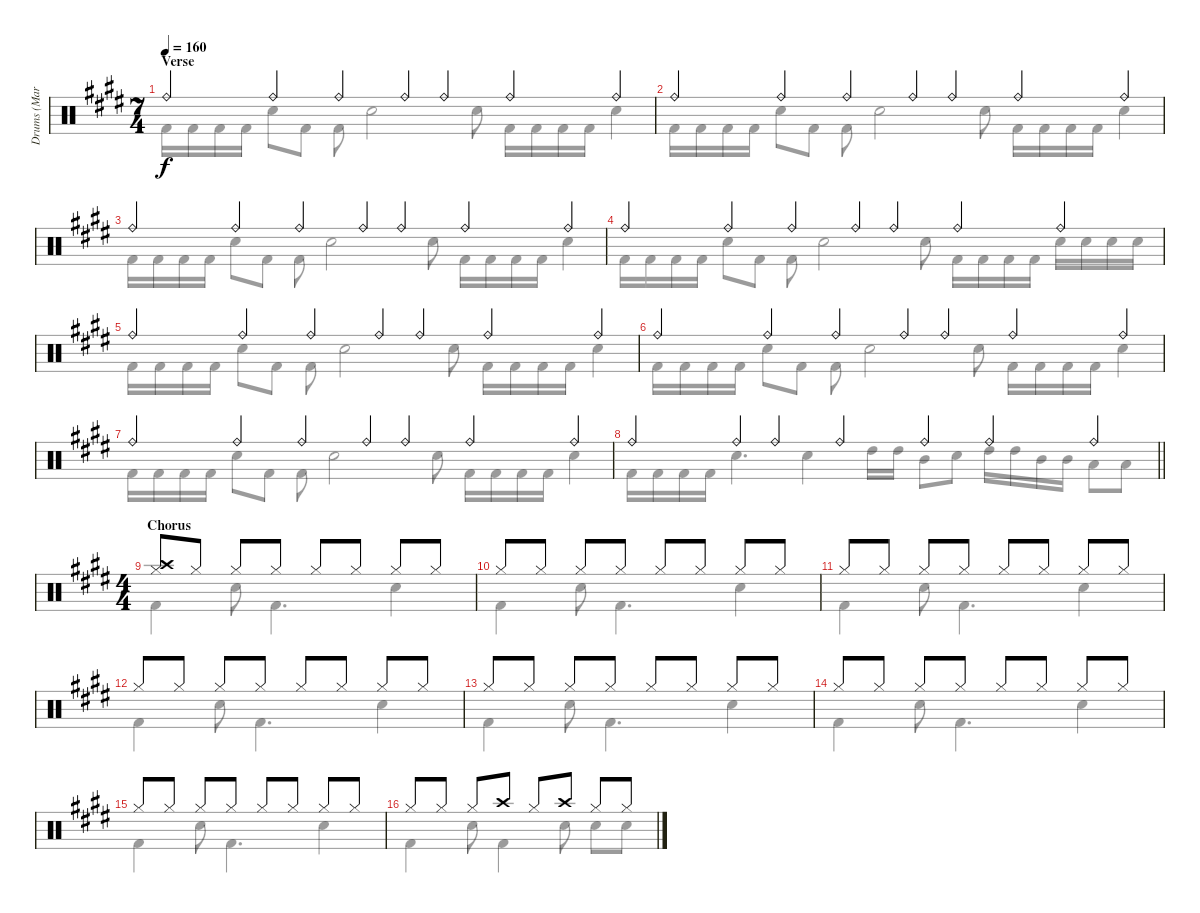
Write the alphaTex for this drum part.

\track ("Drums (Mark Zonder)" "Drums (Mar") {instrument percussion}
\staff {score}
\articulation defaults
\voice
\ts (7 4)
\section ("" "Verse")
\tempo 160
\clef neutral
\ks c#minor "Ride (bell)".4{dy f} "Ride (bell)".4 "Ride (bell)".4 "Ride (bell)".4 "Ride (bell)".4 "Ride (bell)".4 "Ride (bell)".4
|
"Ride (bell)".4 "Ride (bell)".4 "Ride (bell)".4 "Ride (bell)".4 "Ride (bell)".4 "Ride (bell)".4 "Ride (bell)".4 |
"Ride (bell)".4 "Ride (bell)".4 "Ride (bell)".4 "Ride (bell)".4 "Ride (bell)".4 "Ride (bell)".4 "Ride (bell)".4 |
"Ride (bell)".4 "Ride (bell)".4 "Ride (bell)".4 "Ride (bell)".4 "Ride (bell)".4 "Ride (bell)".4 "Ride (bell)".4 |
"Ride (bell)".4 "Ride (bell)".4 "Ride (bell)".4 "Ride (bell)".4 "Ride (bell)".4 "Ride (bell)".4 "Ride (bell)".4 |
"Ride (bell)".4 "Ride (bell)".4 "Ride (bell)".4 "Ride (bell)".4 "Ride (bell)".4 "Ride (bell)".4 "Ride (bell)".4 |
"Ride (bell)".4 "Ride (bell)".4 "Ride (bell)".4 "Ride (bell)".4 "Ride (bell)".4 "Ride (bell)".4 "Ride (bell)".4 |
\barLineRight lightlight "Ride (bell)".4 "Ride (bell)".4 "Ride (bell)".4 "Ride (bell)".4 "Ride (bell)".4 "Ride (bell)".4 "Ride (bell)".4
|
\ts (4 4)
\section ("" "Chorus")
("Hi-Hat (closed)" "Crash high (hit)").8 "Hi-Hat (closed)".8 "Hi-Hat (closed)".8 "Hi-Hat (closed)".8 "Hi-Hat (closed)".8 "Hi-Hat (closed)".8 "Hi-Hat (closed)".8 "Hi-Hat (closed)".8 |
"Hi-Hat (closed)".8 "Hi-Hat (closed)".8 "Hi-Hat (closed)".8 "Hi-Hat (closed)".8 "Hi-Hat (closed)".8 "Hi-Hat (closed)".8 "Hi-Hat (closed)".8 "Hi-Hat (closed)".8 |
"Hi-Hat (closed)".8 "Hi-Hat (closed)".8 "Hi-Hat (closed)".8 "Hi-Hat (closed)".8 "Hi-Hat (closed)".8 "Hi-Hat (closed)".8 "Hi-Hat (closed)".8 "Hi-Hat (closed)".8 |
"Hi-Hat (closed)".8 "Hi-Hat (closed)".8 "Hi-Hat (closed)".8 "Hi-Hat (closed)".8 "Hi-Hat (closed)".8 "Hi-Hat (closed)".8 "Hi-Hat (closed)".8 "Hi-Hat (closed)".8 |
"Hi-Hat (closed)".8 "Hi-Hat (closed)".8 "Hi-Hat (closed)".8 "Hi-Hat (closed)".8 "Hi-Hat (closed)".8 "Hi-Hat (closed)".8 "Hi-Hat (closed)".8 "Hi-Hat (closed)".8 |
"Hi-Hat (closed)".8 "Hi-Hat (closed)".8 "Hi-Hat (closed)".8 "Hi-Hat (closed)".8 "Hi-Hat (closed)".8 "Hi-Hat (closed)".8 "Hi-Hat (closed)".8 "Hi-Hat (closed)".8 |
"Hi-Hat (closed)".8 "Hi-Hat (closed)".8 "Hi-Hat (closed)".8 "Hi-Hat (closed)".8 "Hi-Hat (closed)".8 "Hi-Hat (closed)".8 "Hi-Hat (closed)".8 "Hi-Hat (closed)".8 |
"Hi-Hat (closed)".8 "Hi-Hat (closed)".8 "Hi-Hat (closed)".8 "Crash high (hit)".8 "Hi-Hat (closed)".8 "Crash high (hit)".8 "Hi-Hat (closed)".8 "Hi-Hat (closed)".8
\voice
\clef neutral
\ottava regular
\simile none
\ks c#minor "Kick (hit) 2".16{dy f} "Kick (hit) 2".16 "Kick (hit) 2".16 "Kick (hit) 2".16 "Electric Snare (hit)".8 "Kick (hit) 2".8 "Kick (hit) 2".8 "Electric Snare (hit)".2 "Electric Snare (hit)".8 "Kick (hit) 2".16 "Kick (hit) 2".16 "Kick (hit) 2".16 "Kick (hit) 2".16 "Electric Snare (hit)".4
|
"Kick (hit) 2".16 "Kick (hit) 2".16 "Kick (hit) 2".16 "Kick (hit) 2".16 "Electric Snare (hit)".8 "Kick (hit) 2".8 "Kick (hit) 2".8 "Electric Snare (hit)".2 "Electric Snare (hit)".8 "Kick (hit) 2".16 "Kick (hit) 2".16 "Kick (hit) 2".16 "Kick (hit) 2".16 "Electric Snare (hit)".4 |
"Kick (hit) 2".16 "Kick (hit) 2".16 "Kick (hit) 2".16 "Kick (hit) 2".16 "Electric Snare (hit)".8 "Kick (hit) 2".8 "Kick (hit) 2".8 "Electric Snare (hit)".2 "Electric Snare (hit)".8 "Kick (hit) 2".16 "Kick (hit) 2".16 "Kick (hit) 2".16 "Kick (hit) 2".16 "Electric Snare (hit)".4 |
"Kick (hit) 2".16 "Kick (hit) 2".16 "Kick (hit) 2".16 "Kick (hit) 2".16 "Electric Snare (hit)".8 "Kick (hit) 2".8 "Kick (hit) 2".8 "Electric Snare (hit)".2 "Electric Snare (hit)".8 "Kick (hit) 2".16 "Kick (hit) 2".16 "Kick (hit) 2".16 "Kick (hit) 2".16 "Electric Snare (hit)".16 "Electric Snare (hit)".16 "Electric Snare (hit)".16 "Electric Snare (hit)".16 |
"Kick (hit) 2".16 "Kick (hit) 2".16 "Kick (hit) 2".16 "Kick (hit) 2".16 "Electric Snare (hit)".8 "Kick (hit) 2".8 "Kick (hit) 2".8 "Electric Snare (hit)".2 "Electric Snare (hit)".8 "Kick (hit) 2".16 "Kick (hit) 2".16 "Kick (hit) 2".16 "Kick (hit) 2".16 "Electric Snare (hit)".4 |
"Kick (hit) 2".16 "Kick (hit) 2".16 "Kick (hit) 2".16 "Kick (hit) 2".16 "Electric Snare (hit)".8 "Kick (hit) 2".8 "Kick (hit) 2".8 "Electric Snare (hit)".2 "Electric Snare (hit)".8 "Kick (hit) 2".16 "Kick (hit) 2".16 "Kick (hit) 2".16 "Kick (hit) 2".16 "Electric Snare (hit)".4 |
"Kick (hit) 2".16 "Kick (hit) 2".16 "Kick (hit) 2".16 "Kick (hit) 2".16 "Electric Snare (hit)".8 "Kick (hit) 2".8 "Kick (hit) 2".8 "Electric Snare (hit)".2 "Electric Snare (hit)".8 "Kick (hit) 2".16 "Kick (hit) 2".16 "Kick (hit) 2".16 "Kick (hit) 2".16 "Electric Snare (hit)".4 |
\barLineRight lightlight "Kick (hit) 2".16 "Kick (hit) 2".16 "Kick (hit) 2".16 "Kick (hit) 2".16 "Electric Snare (hit)".4{d} "Electric Snare (hit)".4 "High Tom (hit)".16 "High Tom (hit)".16 "Mid Tom (hit)".8 "Electric Snare (hit)".8 "High Tom (hit)".16 "High Tom (hit)".16 "Mid Tom (hit)".16 "Mid Tom (hit)".16 "Low Tom (hit)".8 "Low Tom (hit)".8
|
"Kick (hit) 2".4 "Electric Snare (hit)".8 "Kick (hit) 2".4{d} "Electric Snare (hit)".4 |
"Kick (hit) 2".4 "Electric Snare (hit)".8 "Kick (hit) 2".4{d} "Electric Snare (hit)".4 |
"Kick (hit) 2".4 "Electric Snare (hit)".8 "Kick (hit) 2".4{d} "Electric Snare (hit)".4 |
"Kick (hit) 2".4 "Electric Snare (hit)".8 "Kick (hit) 2".4{d} "Electric Snare (hit)".4 |
"Kick (hit) 2".4 "Electric Snare (hit)".8 "Kick (hit) 2".4{d} "Electric Snare (hit)".4 |
"Kick (hit) 2".4 "Electric Snare (hit)".8 "Kick (hit) 2".4{d} "Electric Snare (hit)".4 |
"Kick (hit) 2".4 "Electric Snare (hit)".8 "Kick (hit) 2".4{d} "Electric Snare (hit)".4 |
"Kick (hit) 2".4 "Electric Snare (hit)".8 "Kick (hit) 2".4 "Electric Snare (hit)".8 "Electric Snare (hit)".8 "Electric Snare (hit)".8
